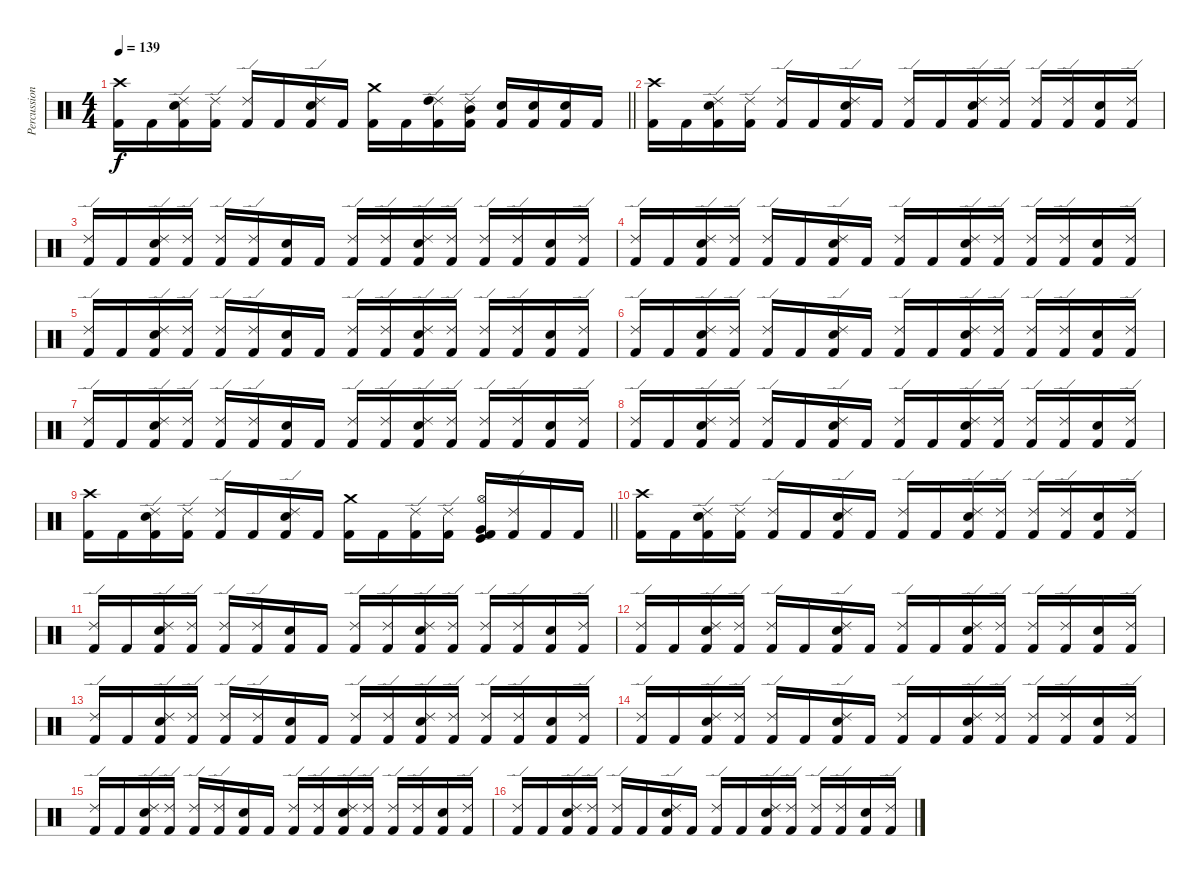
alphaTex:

\track ("Percussion" "Percussion") {instrument percussion}
\staff {score}
\articulation defaults
\ts (4 4)
\tempo 139
\clef neutral
\barLineRight lightlight
\ks c
("Crash high (hit)" "Kick (hit) 2").16{dy f} "Kick (hit) 2".16 ("Ride (edge) 2" "Electric Snare (hit)" "Kick (hit) 2").16 ("Ride (edge) 2" "Kick (hit) 2").16 ("Ride (edge) 2" "Kick (hit) 2").16 "Kick (hit) 2".16 ("Ride (edge) 2" "Electric Snare (hit)" "Kick (hit) 2").16 "Kick (hit) 2".16 ("Crash medium (hit)" "Kick (hit) 2").16 "Kick (hit) 2".16 ("Ride (edge) 2" "High Tom (hit)" "Kick (hit) 2").16 ("Ride (edge) 2" "Mid Tom (hit)" "Kick (hit) 2").16 ("Electric Snare (hit)" "Kick (hit) 2").16 ("Electric Snare (hit)" "Kick (hit) 2").16 ("Electric Snare (hit)" "Kick (hit) 2").16 "Kick (hit) 2".16 |
("Crash high (hit)" "Kick (hit) 2").16 "Kick (hit) 2".16 ("Ride (edge) 2" "Electric Snare (hit)" "Kick (hit) 2").16 ("Ride (edge) 2" "Kick (hit) 2").16 ("Ride (edge) 2" "Kick (hit) 2").16 "Kick (hit) 2".16 ("Ride (edge) 2" "Electric Snare (hit)" "Kick (hit) 2").16 "Kick (hit) 2".16 ("Ride (edge) 2" "Kick (hit) 2").16 "Kick (hit) 2".16 ("Ride (edge) 2" "Electric Snare (hit)" "Kick (hit) 2").16 ("Ride (edge) 2" "Kick (hit) 2").16 ("Ride (edge) 2" "Kick (hit) 2").16 ("Ride (edge) 2" "Kick (hit) 2").16 ("Electric Snare (hit)" "Kick (hit) 2").16 ("Ride (edge) 2" "Kick (hit) 2").16 |
("Ride (edge) 2" "Kick (hit) 2").16 "Kick (hit) 2".16 ("Ride (edge) 2" "Electric Snare (hit)" "Kick (hit) 2").16 ("Ride (edge) 2" "Kick (hit) 2").16 ("Ride (edge) 2" "Kick (hit) 2").16 ("Ride (edge) 2" "Kick (hit) 2").16 ("Electric Snare (hit)" "Kick (hit) 2").16 "Kick (hit) 2".16 ("Ride (edge) 2" "Kick (hit) 2").16 ("Ride (edge) 2" "Kick (hit) 2").16 ("Ride (edge) 2" "Electric Snare (hit)" "Kick (hit) 2").16 ("Ride (edge) 2" "Kick (hit) 2").16 ("Ride (edge) 2" "Kick (hit) 2").16 ("Ride (edge) 2" "Kick (hit) 2").16 ("Electric Snare (hit)" "Kick (hit) 2").16 ("Ride (edge) 2" "Kick (hit) 2").16 |
("Ride (edge) 2" "Kick (hit) 2").16 "Kick (hit) 2".16 ("Ride (edge) 2" "Electric Snare (hit)" "Kick (hit) 2").16 ("Ride (edge) 2" "Kick (hit) 2").16 ("Ride (edge) 2" "Kick (hit) 2").16 "Kick (hit) 2".16 ("Ride (edge) 2" "Electric Snare (hit)" "Kick (hit) 2").16 "Kick (hit) 2".16 ("Ride (edge) 2" "Kick (hit) 2").16 "Kick (hit) 2".16 ("Ride (edge) 2" "Electric Snare (hit)" "Kick (hit) 2").16 ("Ride (edge) 2" "Kick (hit) 2").16 ("Ride (edge) 2" "Kick (hit) 2").16 ("Ride (edge) 2" "Kick (hit) 2").16 ("Electric Snare (hit)" "Kick (hit) 2").16 ("Ride (edge) 2" "Kick (hit) 2").16 |
("Ride (edge) 2" "Kick (hit) 2").16 "Kick (hit) 2".16 ("Ride (edge) 2" "Electric Snare (hit)" "Kick (hit) 2").16 ("Ride (edge) 2" "Kick (hit) 2").16 ("Ride (edge) 2" "Kick (hit) 2").16 ("Ride (edge) 2" "Kick (hit) 2").16 ("Electric Snare (hit)" "Kick (hit) 2").16 "Kick (hit) 2".16 ("Ride (edge) 2" "Kick (hit) 2").16 ("Ride (edge) 2" "Kick (hit) 2").16 ("Ride (edge) 2" "Electric Snare (hit)" "Kick (hit) 2").16 ("Ride (edge) 2" "Kick (hit) 2").16 ("Ride (edge) 2" "Kick (hit) 2").16 ("Ride (edge) 2" "Kick (hit) 2").16 ("Electric Snare (hit)" "Kick (hit) 2").16 ("Ride (edge) 2" "Kick (hit) 2").16 |
("Ride (edge) 2" "Kick (hit) 2").16 "Kick (hit) 2".16 ("Ride (edge) 2" "Electric Snare (hit)" "Kick (hit) 2").16 ("Ride (edge) 2" "Kick (hit) 2").16 ("Ride (edge) 2" "Kick (hit) 2").16 "Kick (hit) 2".16 ("Ride (edge) 2" "Electric Snare (hit)" "Kick (hit) 2").16 "Kick (hit) 2".16 ("Ride (edge) 2" "Kick (hit) 2").16 "Kick (hit) 2".16 ("Ride (edge) 2" "Electric Snare (hit)" "Kick (hit) 2").16 ("Ride (edge) 2" "Kick (hit) 2").16 ("Ride (edge) 2" "Kick (hit) 2").16 ("Ride (edge) 2" "Kick (hit) 2").16 ("Electric Snare (hit)" "Kick (hit) 2").16 ("Ride (edge) 2" "Kick (hit) 2").16 |
("Ride (edge) 2" "Kick (hit) 2").16 "Kick (hit) 2".16 ("Ride (edge) 2" "Electric Snare (hit)" "Kick (hit) 2").16 ("Ride (edge) 2" "Kick (hit) 2").16 ("Ride (edge) 2" "Kick (hit) 2").16 ("Ride (edge) 2" "Kick (hit) 2").16 ("Electric Snare (hit)" "Kick (hit) 2").16 "Kick (hit) 2".16 ("Ride (edge) 2" "Kick (hit) 2").16 ("Ride (edge) 2" "Kick (hit) 2").16 ("Ride (edge) 2" "Electric Snare (hit)" "Kick (hit) 2").16 ("Ride (edge) 2" "Kick (hit) 2").16 ("Ride (edge) 2" "Kick (hit) 2").16 ("Ride (edge) 2" "Kick (hit) 2").16 ("Electric Snare (hit)" "Kick (hit) 2").16 ("Ride (edge) 2" "Kick (hit) 2").16 |
("Ride (edge) 2" "Kick (hit) 2").16 "Kick (hit) 2".16 ("Ride (edge) 2" "Electric Snare (hit)" "Kick (hit) 2").16 ("Ride (edge) 2" "Kick (hit) 2").16 ("Ride (edge) 2" "Kick (hit) 2").16 "Kick (hit) 2".16 ("Ride (edge) 2" "Electric Snare (hit)" "Kick (hit) 2").16 "Kick (hit) 2".16 ("Ride (edge) 2" "Kick (hit) 2").16 "Kick (hit) 2".16 ("Ride (edge) 2" "Electric Snare (hit)" "Kick (hit) 2").16 ("Ride (edge) 2" "Kick (hit) 2").16 ("Ride (edge) 2" "Kick (hit) 2").16 ("Ride (edge) 2" "Kick (hit) 2").16 ("Electric Snare (hit)" "Kick (hit) 2").16 ("Ride (edge) 2" "Kick (hit) 2").16 |
\barLineRight lightlight
("Crash high (hit)" "Kick (hit) 2").16 "Kick (hit) 2".16 ("Ride (edge) 2" "Electric Snare (hit)" "Kick (hit) 2").16 ("Ride (edge) 2" "Kick (hit) 2").16 ("Ride (edge) 2" "Kick (hit) 2").16 "Kick (hit) 2".16 ("Ride (edge) 2" "Electric Snare (hit)" "Kick (hit) 2").16 "Kick (hit) 2".16 ("Crash medium (hit)" "Kick (hit) 2").16 "Kick (hit) 2".16 ("Ride (edge) 2" "Kick (hit) 2").16 ("Ride (edge) 2" "Kick (hit) 2").16 ("Hi-Hat (open)" "Very Low Tom (hit)" "Kick (hit)" "Kick (hit) 2").16 ("Ride (edge) 2" "Kick (hit) 2").16 "Kick (hit) 2".16 "Kick (hit) 2".16 |
("Crash high (hit)" "Kick (hit) 2").16 "Kick (hit) 2".16 ("Ride (edge) 2" "Electric Snare (hit)" "Kick (hit) 2").16 ("Ride (edge) 2" "Kick (hit) 2").16 ("Ride (edge) 2" "Kick (hit) 2").16 "Kick (hit) 2".16 ("Ride (edge) 2" "Electric Snare (hit)" "Kick (hit) 2").16 "Kick (hit) 2".16 ("Ride (edge) 2" "Kick (hit) 2").16 "Kick (hit) 2".16 ("Ride (edge) 2" "Electric Snare (hit)" "Kick (hit) 2").16 ("Ride (edge) 2" "Kick (hit) 2").16 ("Ride (edge) 2" "Kick (hit) 2").16 ("Ride (edge) 2" "Kick (hit) 2").16 ("Electric Snare (hit)" "Kick (hit) 2").16 ("Ride (edge) 2" "Kick (hit) 2").16 |
("Ride (edge) 2" "Kick (hit) 2").16 "Kick (hit) 2".16 ("Ride (edge) 2" "Electric Snare (hit)" "Kick (hit) 2").16 ("Ride (edge) 2" "Kick (hit) 2").16 ("Ride (edge) 2" "Kick (hit) 2").16 ("Ride (edge) 2" "Kick (hit) 2").16 ("Electric Snare (hit)" "Kick (hit) 2").16 "Kick (hit) 2".16 ("Ride (edge) 2" "Kick (hit) 2").16 ("Ride (edge) 2" "Kick (hit) 2").16 ("Ride (edge) 2" "Electric Snare (hit)" "Kick (hit) 2").16 ("Ride (edge) 2" "Kick (hit) 2").16 ("Ride (edge) 2" "Kick (hit) 2").16 ("Ride (edge) 2" "Kick (hit) 2").16 ("Electric Snare (hit)" "Kick (hit) 2").16 ("Ride (edge) 2" "Kick (hit) 2").16 |
("Ride (edge) 2" "Kick (hit) 2").16 "Kick (hit) 2".16 ("Ride (edge) 2" "Electric Snare (hit)" "Kick (hit) 2").16 ("Ride (edge) 2" "Kick (hit) 2").16 ("Ride (edge) 2" "Kick (hit) 2").16 "Kick (hit) 2".16 ("Ride (edge) 2" "Electric Snare (hit)" "Kick (hit) 2").16 "Kick (hit) 2".16 ("Ride (edge) 2" "Kick (hit) 2").16 "Kick (hit) 2".16 ("Ride (edge) 2" "Electric Snare (hit)" "Kick (hit) 2").16 ("Ride (edge) 2" "Kick (hit) 2").16 ("Ride (edge) 2" "Kick (hit) 2").16 ("Ride (edge) 2" "Kick (hit) 2").16 ("Electric Snare (hit)" "Kick (hit) 2").16 ("Ride (edge) 2" "Kick (hit) 2").16 |
("Ride (edge) 2" "Kick (hit) 2").16 "Kick (hit) 2".16 ("Ride (edge) 2" "Electric Snare (hit)" "Kick (hit) 2").16 ("Ride (edge) 2" "Kick (hit) 2").16 ("Ride (edge) 2" "Kick (hit) 2").16 ("Ride (edge) 2" "Kick (hit) 2").16 ("Electric Snare (hit)" "Kick (hit) 2").16 "Kick (hit) 2".16 ("Ride (edge) 2" "Kick (hit) 2").16 ("Ride (edge) 2" "Kick (hit) 2").16 ("Ride (edge) 2" "Electric Snare (hit)" "Kick (hit) 2").16 ("Ride (edge) 2" "Kick (hit) 2").16 ("Ride (edge) 2" "Kick (hit) 2").16 ("Ride (edge) 2" "Kick (hit) 2").16 ("Electric Snare (hit)" "Kick (hit) 2").16 ("Ride (edge) 2" "Kick (hit) 2").16 |
("Ride (edge) 2" "Kick (hit) 2").16 "Kick (hit) 2".16 ("Ride (edge) 2" "Electric Snare (hit)" "Kick (hit) 2").16 ("Ride (edge) 2" "Kick (hit) 2").16 ("Ride (edge) 2" "Kick (hit) 2").16 "Kick (hit) 2".16 ("Ride (edge) 2" "Electric Snare (hit)" "Kick (hit) 2").16 "Kick (hit) 2".16 ("Ride (edge) 2" "Kick (hit) 2").16 "Kick (hit) 2".16 ("Ride (edge) 2" "Electric Snare (hit)" "Kick (hit) 2").16 ("Ride (edge) 2" "Kick (hit) 2").16 ("Ride (edge) 2" "Kick (hit) 2").16 ("Ride (edge) 2" "Kick (hit) 2").16 ("Electric Snare (hit)" "Kick (hit) 2").16 ("Ride (edge) 2" "Kick (hit) 2").16 |
("Ride (edge) 2" "Kick (hit) 2").16 "Kick (hit) 2".16 ("Ride (edge) 2" "Electric Snare (hit)" "Kick (hit) 2").16 ("Ride (edge) 2" "Kick (hit) 2").16 ("Ride (edge) 2" "Kick (hit) 2").16 ("Ride (edge) 2" "Kick (hit) 2").16 ("Electric Snare (hit)" "Kick (hit) 2").16 "Kick (hit) 2".16 ("Ride (edge) 2" "Kick (hit) 2").16 ("Ride (edge) 2" "Kick (hit) 2").16 ("Ride (edge) 2" "Electric Snare (hit)" "Kick (hit) 2").16 ("Ride (edge) 2" "Kick (hit) 2").16 ("Ride (edge) 2" "Kick (hit) 2").16 ("Ride (edge) 2" "Kick (hit) 2").16 ("Electric Snare (hit)" "Kick (hit) 2").16 ("Ride (edge) 2" "Kick (hit) 2").16 |
("Ride (edge) 2" "Kick (hit) 2").16 "Kick (hit) 2".16 ("Ride (edge) 2" "Electric Snare (hit)" "Kick (hit) 2").16 ("Ride (edge) 2" "Kick (hit) 2").16 ("Ride (edge) 2" "Kick (hit) 2").16 "Kick (hit) 2".16 ("Ride (edge) 2" "Electric Snare (hit)" "Kick (hit) 2").16 "Kick (hit) 2".16 ("Ride (edge) 2" "Kick (hit) 2").16 "Kick (hit) 2".16 ("Ride (edge) 2" "Electric Snare (hit)" "Kick (hit) 2").16 ("Ride (edge) 2" "Kick (hit) 2").16 ("Ride (edge) 2" "Kick (hit) 2").16 ("Ride (edge) 2" "Kick (hit) 2").16 ("Electric Snare (hit)" "Kick (hit) 2").16 ("Ride (edge) 2" "Kick (hit) 2").16
